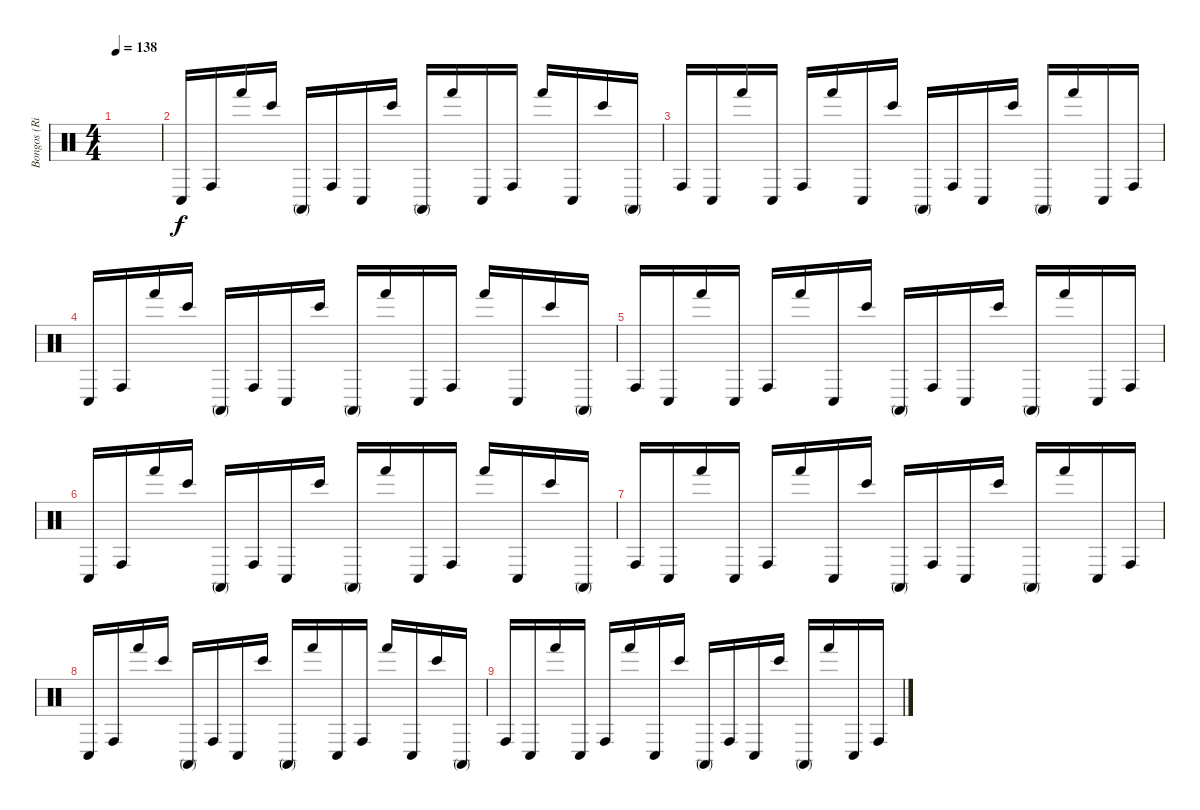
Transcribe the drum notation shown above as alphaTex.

\track ("Bongos (Ringo Starr)" "Bongos (Ri") {instrument percussion}
\staff {score}
\articulation defaults
\ts (4 4)
\tempo 138
\clef neutral
\ks c
|
"Conga low (hit)".16 "Conga high (hit)".16 "Hand (hit)".16 "Bongo High (hit)".16 "Conga high (mute)".16 "Conga high (hit)".16 "Conga low (hit)".16 "Bongo High (hit)".16 "Conga high (mute)".16 "Hand (hit)".16 "Conga low (hit)".16 "Conga high (hit)".16 "Hand (hit)".16 "Conga low (hit)".16 "Bongo High (hit)".16 "Conga high (mute)".16 |
"Conga high (hit)".16 "Conga low (hit)".16 "Hand (hit)".16 "Conga low (hit)".16 "Conga high (hit)".16 "Hand (hit)".16 "Conga low (hit)".16 "Bongo High (hit)".16 "Conga high (mute)".16 "Conga high (hit)".16 "Conga low (hit)".16 "Bongo High (hit)".16 "Conga high (mute)".16 "Hand (hit)".16 "Conga low (hit)".16 "Conga high (hit)".16 |
"Conga low (hit)".16 "Conga high (hit)".16 "Hand (hit)".16 "Bongo High (hit)".16 "Conga high (mute)".16 "Conga high (hit)".16 "Conga low (hit)".16 "Bongo High (hit)".16 "Conga high (mute)".16 "Hand (hit)".16 "Conga low (hit)".16 "Conga high (hit)".16 "Hand (hit)".16 "Conga low (hit)".16 "Bongo High (hit)".16 "Conga high (mute)".16 |
"Conga high (hit)".16 "Conga low (hit)".16 "Hand (hit)".16 "Conga low (hit)".16 "Conga high (hit)".16 "Hand (hit)".16 "Conga low (hit)".16 "Bongo High (hit)".16 "Conga high (mute)".16 "Conga high (hit)".16 "Conga low (hit)".16 "Bongo High (hit)".16 "Conga high (mute)".16 "Hand (hit)".16 "Conga low (hit)".16 "Conga high (hit)".16 |
"Conga low (hit)".16 "Conga high (hit)".16 "Hand (hit)".16 "Bongo High (hit)".16 "Conga high (mute)".16 "Conga high (hit)".16 "Conga low (hit)".16 "Bongo High (hit)".16 "Conga high (mute)".16 "Hand (hit)".16 "Conga low (hit)".16 "Conga high (hit)".16 "Hand (hit)".16 "Conga low (hit)".16 "Bongo High (hit)".16 "Conga high (mute)".16 |
"Conga high (hit)".16 "Conga low (hit)".16 "Hand (hit)".16 "Conga low (hit)".16 "Conga high (hit)".16 "Hand (hit)".16 "Conga low (hit)".16 "Bongo High (hit)".16 "Conga high (mute)".16 "Conga high (hit)".16 "Conga low (hit)".16 "Bongo High (hit)".16 "Conga high (mute)".16 "Hand (hit)".16 "Conga low (hit)".16 "Conga high (hit)".16 |
"Conga low (hit)".16 "Conga high (hit)".16 "Hand (hit)".16 "Bongo High (hit)".16 "Conga high (mute)".16 "Conga high (hit)".16 "Conga low (hit)".16 "Bongo High (hit)".16 "Conga high (mute)".16 "Hand (hit)".16 "Conga low (hit)".16 "Conga high (hit)".16 "Hand (hit)".16 "Conga low (hit)".16 "Bongo High (hit)".16 "Conga high (mute)".16 |
"Conga high (hit)".16 "Conga low (hit)".16 "Hand (hit)".16 "Conga low (hit)".16 "Conga high (hit)".16 "Hand (hit)".16 "Conga low (hit)".16 "Bongo High (hit)".16 "Conga high (mute)".16 "Conga high (hit)".16 "Conga low (hit)".16 "Bongo High (hit)".16 "Conga high (mute)".16 "Hand (hit)".16 "Conga low (hit)".16 "Conga high (hit)".16
